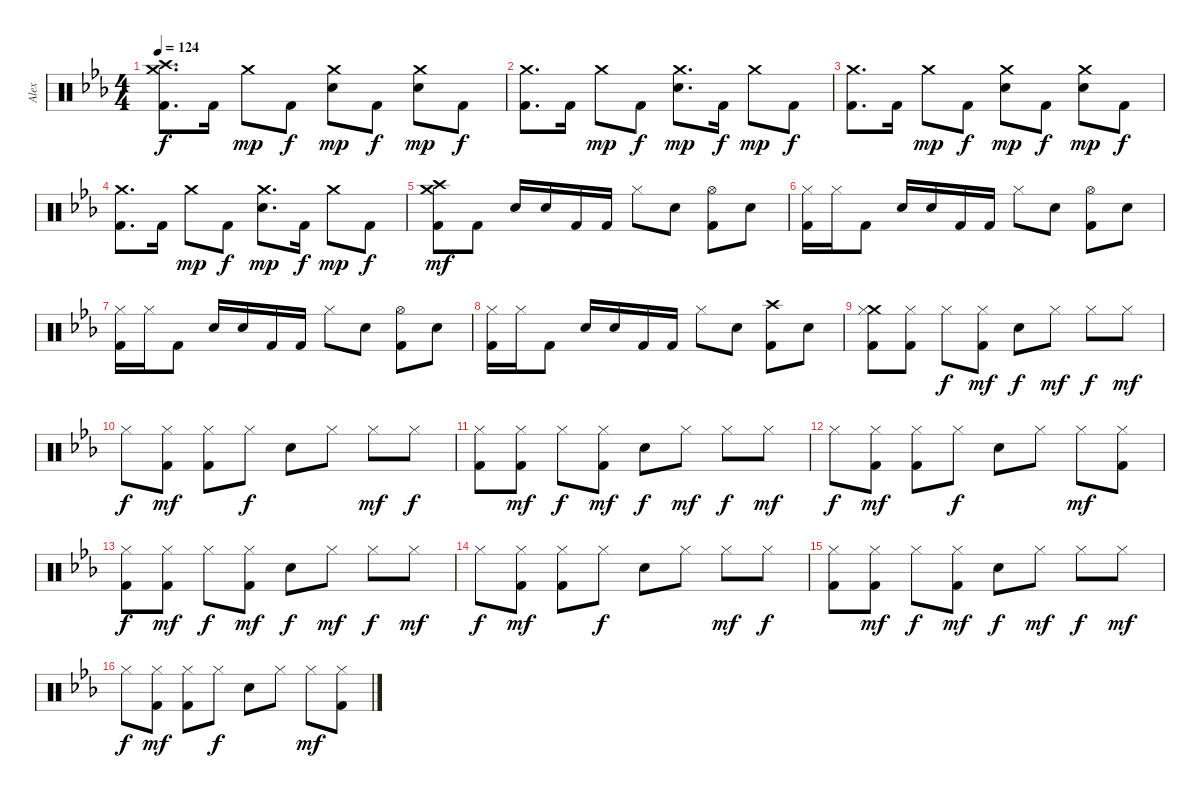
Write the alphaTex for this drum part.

\track ("Alex" "Alex") {instrument percussion}
\staff {score}
\articulation defaults
\ts (4 4)
\tempo 124
\clef neutral
\ks cminor
("Crash high (hit)" "Crash medium (hit)" "Kick (hit) 2").8{d dy f} "Kick (hit) 2".16 "Crash medium (hit)".8{dy mp} "Kick (hit) 2".8{dy f} ("Crash medium (hit)" "Electric Snare (hit)").8{dy mp} "Kick (hit) 2".8{dy f} ("Crash medium (hit)" "Electric Snare (hit)").8{dy mp} "Kick (hit) 2".8{dy f} |
("Crash medium (hit)" "Kick (hit) 2").8{d} "Kick (hit) 2".16 "Crash medium (hit)".8{dy mp} "Kick (hit) 2".8{dy f} ("Crash medium (hit)" "Electric Snare (hit)").8{d dy mp} "Kick (hit) 2".16{dy f} "Crash medium (hit)".8{dy mp} "Kick (hit) 2".8{dy f} |
("Crash medium (hit)" "Kick (hit) 2").8{d} "Kick (hit) 2".16 "Crash medium (hit)".8{dy mp} "Kick (hit) 2".8{dy f} ("Crash medium (hit)" "Electric Snare (hit)").8{dy mp} "Kick (hit) 2".8{dy f} ("Crash medium (hit)" "Electric Snare (hit)").8{dy mp} "Kick (hit) 2".8{dy f} |
("Crash medium (hit)" "Kick (hit) 2").8{d} "Kick (hit) 2".16 "Crash medium (hit)".8{dy mp} "Kick (hit) 2".8{dy f} ("Crash medium (hit)" "Electric Snare (hit)").8{d dy mp} "Kick (hit) 2".16{dy f} "Crash medium (hit)".8{dy mp} "Kick (hit) 2".8{dy f} |
("Crash high (hit)" "Crash medium (hit)" "Kick (hit) 2").8{dy mf} "Kick (hit) 2".8 "Electric Snare (hit)".16 "Electric Snare (hit)".16 "Kick (hit) 2".16 "Kick (hit) 2".16 "Hi-Hat (closed)".8 "Electric Snare (hit)".8 ("Hi-Hat (open)" "Kick (hit) 2").8 "Electric Snare (hit)".8 |
("Hi-Hat (closed)" "Kick (hit) 2").16 "Hi-Hat (closed)".16 "Kick (hit) 2".8 "Electric Snare (hit)".16 "Electric Snare (hit)".16 "Kick (hit) 2".16 "Kick (hit) 2".16 "Hi-Hat (closed)".8 "Electric Snare (hit)".8 ("Hi-Hat (open)" "Kick (hit) 2").8 "Electric Snare (hit)".8 |
("Hi-Hat (closed)" "Kick (hit) 2").16 "Hi-Hat (closed)".16 "Kick (hit) 2".8 "Electric Snare (hit)".16 "Electric Snare (hit)".16 "Kick (hit) 2".16 "Kick (hit) 2".16 "Hi-Hat (closed)".8 "Electric Snare (hit)".8 ("Hi-Hat (open)" "Kick (hit) 2").8 "Electric Snare (hit)".8 |
("Hi-Hat (closed)" "Kick (hit) 2").16 "Hi-Hat (closed)".16 "Kick (hit) 2".8 "Electric Snare (hit)".16 "Electric Snare (hit)".16 "Kick (hit) 2".16 "Kick (hit) 2".16 "Hi-Hat (closed)".8 "Electric Snare (hit)".8 ("Crash high (hit)" "Kick (hit) 2").8 "Electric Snare (hit)".8 |
("Crash medium (hit)" "Hi-Hat (closed)" "Kick (hit) 2").8 ("Hi-Hat (closed)" "Kick (hit) 2").8 "Hi-Hat (closed)".8{dy f} ("Hi-Hat (closed)" "Kick (hit) 2").8{dy mf} "Electric Snare (hit)".8{dy f} "Hi-Hat (closed)".8{dy mf} "Hi-Hat (closed)".8{dy f} "Hi-Hat (closed)".8{dy mf} |
"Hi-Hat (closed)".8{dy f} ("Hi-Hat (closed)" "Kick (hit) 2").8{dy mf} ("Hi-Hat (closed)" "Kick (hit) 2").8 "Hi-Hat (closed)".8{dy f} "Electric Snare (hit)".8 "Hi-Hat (closed)".8 "Hi-Hat (closed)".8{dy mf} "Hi-Hat (closed)".8{dy f} |
("Hi-Hat (closed)" "Kick (hit) 2").8 ("Hi-Hat (closed)" "Kick (hit) 2").8{dy mf} "Hi-Hat (closed)".8{dy f} ("Hi-Hat (closed)" "Kick (hit) 2").8{dy mf} "Electric Snare (hit)".8{dy f} "Hi-Hat (closed)".8{dy mf} "Hi-Hat (closed)".8{dy f} "Hi-Hat (closed)".8{dy mf} |
"Hi-Hat (closed)".8{dy f} ("Hi-Hat (closed)" "Kick (hit) 2").8{dy mf} ("Hi-Hat (closed)" "Kick (hit) 2").8 "Hi-Hat (closed)".8{dy f} "Electric Snare (hit)".8 "Hi-Hat (closed)".8 "Hi-Hat (closed)".8{dy mf} ("Hi-Hat (closed)" "Kick (hit) 2").8 |
("Hi-Hat (closed)" "Kick (hit) 2").8{dy f} ("Hi-Hat (closed)" "Kick (hit) 2").8{dy mf} "Hi-Hat (closed)".8{dy f} ("Hi-Hat (closed)" "Kick (hit) 2").8{dy mf} "Electric Snare (hit)".8{dy f} "Hi-Hat (closed)".8{dy mf} "Hi-Hat (closed)".8{dy f} "Hi-Hat (closed)".8{dy mf} |
"Hi-Hat (closed)".8{dy f} ("Hi-Hat (closed)" "Kick (hit) 2").8{dy mf} ("Hi-Hat (closed)" "Kick (hit) 2").8 "Hi-Hat (closed)".8{dy f} "Electric Snare (hit)".8 "Hi-Hat (closed)".8 "Hi-Hat (closed)".8{dy mf} "Hi-Hat (closed)".8{dy f} |
("Hi-Hat (closed)" "Kick (hit) 2").8 ("Hi-Hat (closed)" "Kick (hit) 2").8{dy mf} "Hi-Hat (closed)".8{dy f} ("Hi-Hat (closed)" "Kick (hit) 2").8{dy mf} "Electric Snare (hit)".8{dy f} "Hi-Hat (closed)".8{dy mf} "Hi-Hat (closed)".8{dy f} "Hi-Hat (closed)".8{dy mf} |
"Hi-Hat (closed)".8{dy f} ("Hi-Hat (closed)" "Kick (hit) 2").8{dy mf} ("Hi-Hat (closed)" "Kick (hit) 2").8 "Hi-Hat (closed)".8{dy f} "Electric Snare (hit)".8 "Hi-Hat (closed)".8 "Hi-Hat (closed)".8{dy mf} ("Hi-Hat (closed)" "Kick (hit) 2").8
